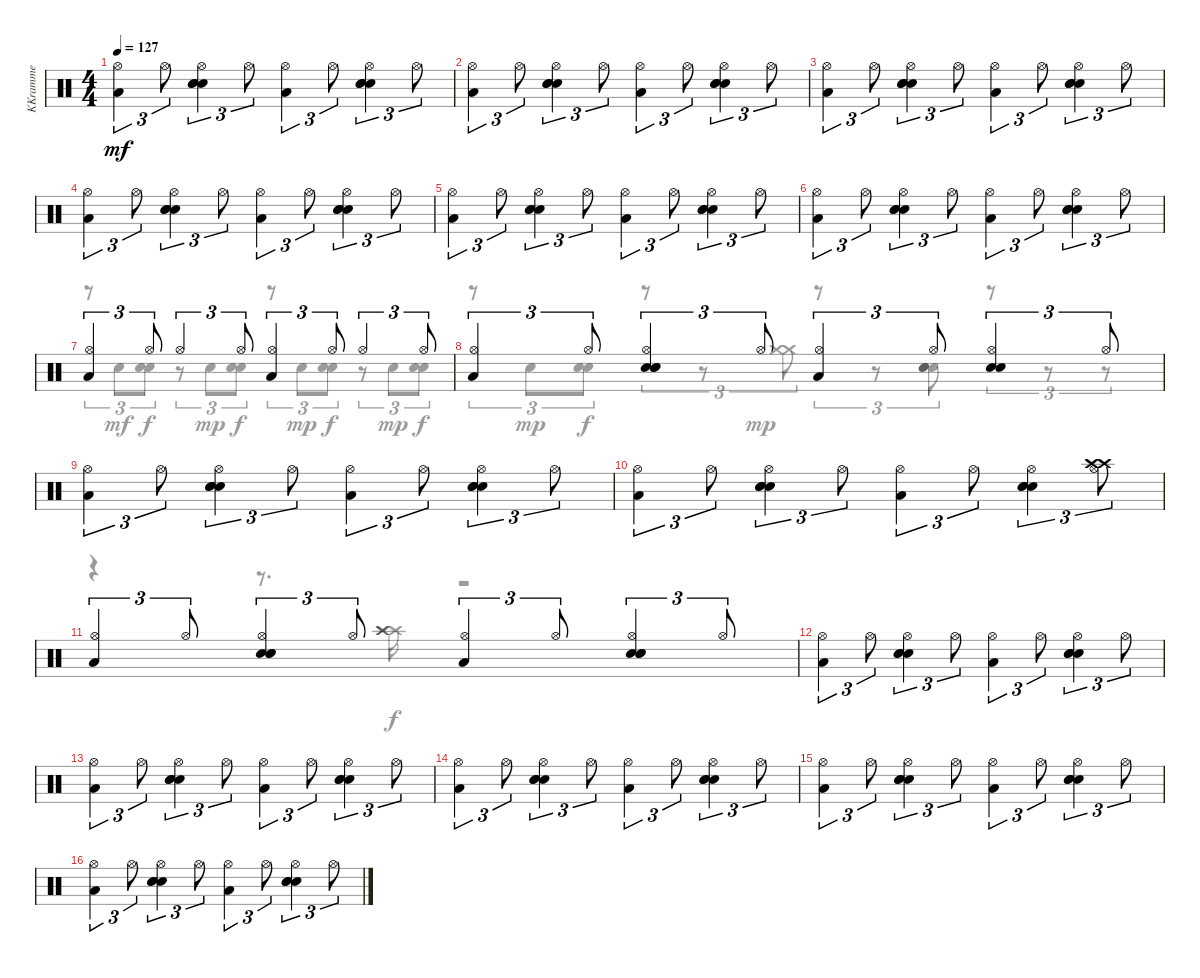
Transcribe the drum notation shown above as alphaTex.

\track ("KKramme" "KKramme") {instrument percussion}
\staff {score}
\articulation defaults
\voice
\ts (4 4)
\tempo 127
\clef neutral
\ks c
("Low Tom (hit)" "Hi-Hat (open)").4{tu (3 2) dy mf} "Hi-Hat (open)".8{tu (3 2)} ("Snare (hit) 2" "Snare (hit) 2" "Snare (hit) 2" "Hi-Hat (open)").4{tu (3 2)} "Hi-Hat (open)".8{tu (3 2)} ("Low Tom (hit)" "Hi-Hat (open)").4{tu (3 2)} "Hi-Hat (open)".8{tu (3 2)} ("Snare (hit) 2" "Snare (hit) 2" "Snare (hit) 2" "Hi-Hat (open)").4{tu (3 2)} "Hi-Hat (open)".8{tu (3 2)} |
("Low Tom (hit)" "Hi-Hat (open)").4{tu (3 2)} "Hi-Hat (open)".8{tu (3 2)} ("Snare (hit) 2" "Snare (hit) 2" "Snare (hit) 2" "Hi-Hat (open)").4{tu (3 2)} "Hi-Hat (open)".8{tu (3 2)} ("Low Tom (hit)" "Hi-Hat (open)").4{tu (3 2)} "Hi-Hat (open)".8{tu (3 2)} ("Snare (hit) 2" "Snare (hit) 2" "Snare (hit) 2" "Hi-Hat (open)").4{tu (3 2)} "Hi-Hat (open)".8{tu (3 2)} |
("Low Tom (hit)" "Hi-Hat (open)").4{tu (3 2)} "Hi-Hat (open)".8{tu (3 2)} ("Snare (hit) 2" "Snare (hit) 2" "Snare (hit) 2" "Hi-Hat (open)").4{tu (3 2)} "Hi-Hat (open)".8{tu (3 2)} ("Low Tom (hit)" "Hi-Hat (open)").4{tu (3 2)} "Hi-Hat (open)".8{tu (3 2)} ("Snare (hit) 2" "Snare (hit) 2" "Snare (hit) 2" "Hi-Hat (open)").4{tu (3 2)} "Hi-Hat (open)".8{tu (3 2)} |
("Low Tom (hit)" "Hi-Hat (open)").4{tu (3 2)} "Hi-Hat (open)".8{tu (3 2)} ("Snare (hit) 2" "Snare (hit) 2" "Snare (hit) 2" "Hi-Hat (open)").4{tu (3 2)} "Hi-Hat (open)".8{tu (3 2)} ("Low Tom (hit)" "Hi-Hat (open)").4{tu (3 2)} "Hi-Hat (open)".8{tu (3 2)} ("Snare (hit) 2" "Snare (hit) 2" "Snare (hit) 2" "Hi-Hat (open)").4{tu (3 2)} "Hi-Hat (open)".8{tu (3 2)} |
("Low Tom (hit)" "Hi-Hat (open)").4{tu (3 2)} "Hi-Hat (open)".8{tu (3 2)} ("Snare (hit) 2" "Snare (hit) 2" "Snare (hit) 2" "Hi-Hat (open)").4{tu (3 2)} "Hi-Hat (open)".8{tu (3 2)} ("Low Tom (hit)" "Hi-Hat (open)").4{tu (3 2)} "Hi-Hat (open)".8{tu (3 2)} ("Snare (hit) 2" "Snare (hit) 2" "Snare (hit) 2" "Hi-Hat (open)").4{tu (3 2)} "Hi-Hat (open)".8{tu (3 2)} |
("Low Tom (hit)" "Hi-Hat (open)").4{tu (3 2)} "Hi-Hat (open)".8{tu (3 2)} ("Snare (hit) 2" "Snare (hit) 2" "Snare (hit) 2" "Hi-Hat (open)").4{tu (3 2)} "Hi-Hat (open)".8{tu (3 2)} ("Low Tom (hit)" "Hi-Hat (open)").4{tu (3 2)} "Hi-Hat (open)".8{tu (3 2)} ("Snare (hit) 2" "Snare (hit) 2" "Snare (hit) 2" "Hi-Hat (open)").4{tu (3 2)} "Hi-Hat (open)".8{tu (3 2)} |
("Low Tom (hit)" "Hi-Hat (open)").4{tu (3 2)} "Hi-Hat (open)".8{tu (3 2)} "Hi-Hat (open)".4{tu (3 2)} "Hi-Hat (open)".8{tu (3 2)} ("Low Tom (hit)" "Hi-Hat (open)").4{tu (3 2)} "Hi-Hat (open)".8{tu (3 2)} "Hi-Hat (open)".4{tu (3 2)} "Hi-Hat (open)".8{tu (3 2)} |
("Low Tom (hit)" "Hi-Hat (open)").4{tu (3 2)} "Hi-Hat (open)".8{tu (3 2)} ("Snare (hit) 2" "Snare (hit) 2" "Snare (hit) 2" "Hi-Hat (open)").4{tu (3 2)} "Hi-Hat (open)".8{tu (3 2)} ("Low Tom (hit)" "Hi-Hat (open)").4{tu (3 2)} "Hi-Hat (open)".8{tu (3 2)} ("Snare (hit) 2" "Snare (hit) 2" "Hi-Hat (open)").4{tu (3 2)} "Hi-Hat (open)".8{tu (3 2)} |
("Low Tom (hit)" "Hi-Hat (open)").4{tu (3 2)} "Hi-Hat (open)".8{tu (3 2)} ("Snare (hit) 2" "Snare (hit) 2" "Snare (hit) 2" "Hi-Hat (open)").4{tu (3 2)} "Hi-Hat (open)".8{tu (3 2)} ("Low Tom (hit)" "Hi-Hat (open)").4{tu (3 2)} "Hi-Hat (open)".8{tu (3 2)} ("Snare (hit) 2" "Snare (hit) 2" "Snare (hit) 2" "Hi-Hat (open)").4{tu (3 2)} "Hi-Hat (open)".8{tu (3 2)} |
("Low Tom (hit)" "Hi-Hat (open)").4{tu (3 2)} "Hi-Hat (open)".8{tu (3 2)} ("Snare (hit) 2" "Snare (hit) 2" "Snare (hit) 2" "Hi-Hat (open)").4{tu (3 2)} "Hi-Hat (open)".8{tu (3 2)} ("Low Tom (hit)" "Hi-Hat (open)").4{tu (3 2)} "Hi-Hat (open)".8{tu (3 2)} ("Snare (hit) 2" "Snare (hit) 2" "Snare (hit) 2" "Hi-Hat (open)").4{tu (3 2)} ("Crash high (hit)" "Crash high (hit)" "Hi-Hat (open)").8{tu (3 2)} |
("Low Tom (hit)" "Hi-Hat (open)").4{tu (3 2)} "Hi-Hat (open)".8{tu (3 2)} ("Snare (hit) 2" "Snare (hit) 2" "Snare (hit) 2" "Hi-Hat (open)").4{tu (3 2)} "Hi-Hat (open)".8{tu (3 2)} ("Low Tom (hit)" "Hi-Hat (open)").4{tu (3 2)} "Hi-Hat (open)".8{tu (3 2)} ("Snare (hit) 2" "Snare (hit) 2" "Snare (hit) 2" "Hi-Hat (open)").4{tu (3 2)} "Hi-Hat (open)".8{tu (3 2)} |
("Low Tom (hit)" "Hi-Hat (open)").4{tu (3 2)} "Hi-Hat (open)".8{tu (3 2)} ("Snare (hit) 2" "Snare (hit) 2" "Snare (hit) 2" "Hi-Hat (open)").4{tu (3 2)} "Hi-Hat (open)".8{tu (3 2)} ("Low Tom (hit)" "Hi-Hat (open)").4{tu (3 2)} "Hi-Hat (open)".8{tu (3 2)} ("Snare (hit) 2" "Snare (hit) 2" "Snare (hit) 2" "Hi-Hat (open)").4{tu (3 2)} "Hi-Hat (open)".8{tu (3 2)} |
("Low Tom (hit)" "Hi-Hat (open)").4{tu (3 2)} "Hi-Hat (open)".8{tu (3 2)} ("Snare (hit) 2" "Snare (hit) 2" "Snare (hit) 2" "Hi-Hat (open)").4{tu (3 2)} "Hi-Hat (open)".8{tu (3 2)} ("Low Tom (hit)" "Hi-Hat (open)").4{tu (3 2)} "Hi-Hat (open)".8{tu (3 2)} ("Snare (hit) 2" "Snare (hit) 2" "Snare (hit) 2" "Hi-Hat (open)").4{tu (3 2)} "Hi-Hat (open)".8{tu (3 2)} |
("Low Tom (hit)" "Hi-Hat (open)").4{tu (3 2)} "Hi-Hat (open)".8{tu (3 2)} ("Snare (hit) 2" "Snare (hit) 2" "Snare (hit) 2" "Hi-Hat (open)").4{tu (3 2)} "Hi-Hat (open)".8{tu (3 2)} ("Low Tom (hit)" "Hi-Hat (open)").4{tu (3 2)} "Hi-Hat (open)".8{tu (3 2)} ("Snare (hit) 2" "Snare (hit) 2" "Snare (hit) 2" "Hi-Hat (open)").4{tu (3 2)} "Hi-Hat (open)".8{tu (3 2)} |
("Low Tom (hit)" "Hi-Hat (open)").4{tu (3 2)} "Hi-Hat (open)".8{tu (3 2)} ("Snare (hit) 2" "Snare (hit) 2" "Snare (hit) 2" "Hi-Hat (open)").4{tu (3 2)} "Hi-Hat (open)".8{tu (3 2)} ("Low Tom (hit)" "Hi-Hat (open)").4{tu (3 2)} "Hi-Hat (open)".8{tu (3 2)} ("Snare (hit) 2" "Snare (hit) 2" "Snare (hit) 2" "Hi-Hat (open)").4{tu (3 2)} "Hi-Hat (open)".8{tu (3 2)} |
("Low Tom (hit)" "Hi-Hat (open)").4{tu (3 2)} "Hi-Hat (open)".8{tu (3 2)} ("Snare (hit) 2" "Snare (hit) 2" "Snare (hit) 2" "Hi-Hat (open)").4{tu (3 2)} "Hi-Hat (open)".8{tu (3 2)} ("Low Tom (hit)" "Hi-Hat (open)").4{tu (3 2)} "Hi-Hat (open)".8{tu (3 2)} ("Snare (hit) 2" "Snare (hit) 2" "Snare (hit) 2" "Hi-Hat (open)").4{tu (3 2)} "Hi-Hat (open)".8{tu (3 2)}
\voice
\clef neutral
\ottava regular
\simile none
\ks c
|
|
|
|
|
|
r.8{tu (3 2)} "Snare (hit) 2".8{tu (3 2)} ("Snare (hit) 2" "Snare (hit) 2").8{tu (3 2) dy f} r.8{tu (3 2)} "Snare (hit) 2".8{tu (3 2) dy mp} ("Snare (hit) 2" "Snare (hit) 2").8{tu (3 2) dy f} r.8{tu (3 2)} "Snare (hit) 2".8{tu (3 2) dy mp} ("Snare (hit) 2" "Snare (hit) 2").8{tu (3 2) dy f} r.8{tu (3 2)} "Snare (hit) 2".8{tu (3 2) dy mp} ("Snare (hit) 2" "Snare (hit) 2").8{tu (3 2) dy f} |
r.8{tu (3 2)} "Snare (hit) 2".8{tu (3 2) dy mp} ("Snare (hit) 2" "Snare (hit) 2").8{tu (3 2) dy f} r.8{tu (3 2)} r.8{tu (3 2)} ("Crash medium (hit)" "Crash medium (hit)").8{tu (3 2) dy mp} r.8{tu (3 2)} r.8{tu (3 2)} ("Snare (hit) 2" "Snare (hit) 2" "Snare (hit) 2").8{tu (3 2)} r.8{tu (3 2)} r.8{tu (3 2)} r.8{tu (3 2)} |
|
|
r.4 r.8{d} ("Crash high (hit)" "Crash high (hit)" "Crash high (hit)").16{dy f} r.2 |
|
|
|
|
